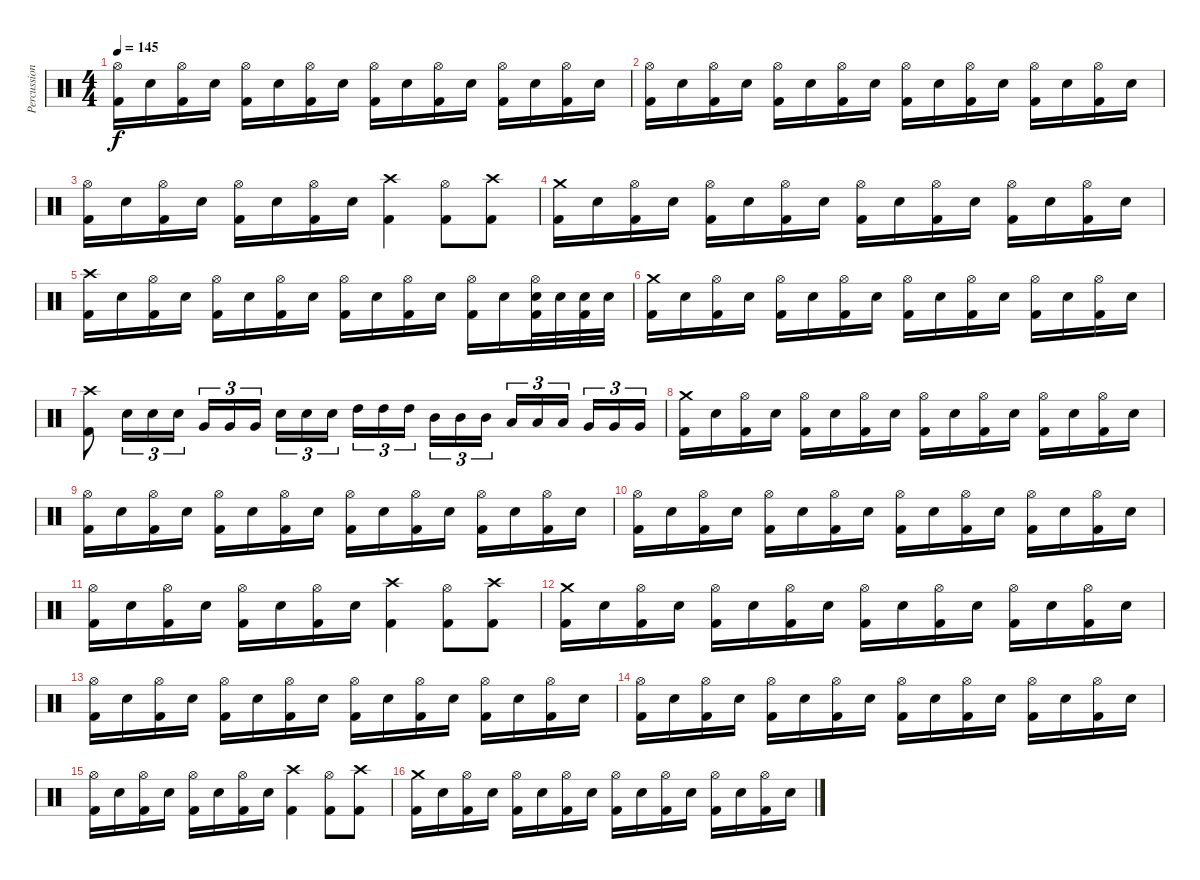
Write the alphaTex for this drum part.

\track ("Percussions" "Percussion") {instrument percussion}
\staff {score}
\articulation defaults
\ts (4 4)
\tempo 145
\clef neutral
\ks c
("Hi-Hat (open)" "Kick (hit) 2").16{dy f} "Electric Snare (hit)".16 ("Hi-Hat (open)" "Kick (hit) 2").16 "Electric Snare (hit)".16 ("Hi-Hat (open)" "Kick (hit) 2").16 "Electric Snare (hit)".16 ("Hi-Hat (open)" "Kick (hit) 2").16 "Electric Snare (hit)".16 ("Hi-Hat (open)" "Kick (hit) 2").16 "Electric Snare (hit)".16 ("Hi-Hat (open)" "Kick (hit) 2").16 "Electric Snare (hit)".16 ("Hi-Hat (open)" "Kick (hit) 2").16 "Electric Snare (hit)".16 ("Hi-Hat (open)" "Kick (hit) 2").16 "Electric Snare (hit)".16 |
("Hi-Hat (open)" "Kick (hit) 2").16 "Electric Snare (hit)".16 ("Hi-Hat (open)" "Kick (hit) 2").16 "Electric Snare (hit)".16 ("Hi-Hat (open)" "Kick (hit) 2").16 "Electric Snare (hit)".16 ("Hi-Hat (open)" "Kick (hit) 2").16 "Electric Snare (hit)".16 ("Hi-Hat (open)" "Kick (hit) 2").16 "Electric Snare (hit)".16 ("Hi-Hat (open)" "Kick (hit) 2").16 "Electric Snare (hit)".16 ("Hi-Hat (open)" "Kick (hit) 2").16 "Electric Snare (hit)".16 ("Hi-Hat (open)" "Kick (hit) 2").16 "Electric Snare (hit)".16 |
("Hi-Hat (open)" "Kick (hit) 2").16 "Electric Snare (hit)".16 ("Hi-Hat (open)" "Kick (hit) 2").16 "Electric Snare (hit)".16 ("Hi-Hat (open)" "Kick (hit) 2").16 "Electric Snare (hit)".16 ("Hi-Hat (open)" "Kick (hit) 2").16 "Electric Snare (hit)".16 ("Crash high (hit)" "Kick (hit) 2").4 ("Hi-Hat (open)" "Kick (hit) 2").8 ("Crash high (hit)" "Kick (hit) 2").8 |
("Crash medium (hit)" "Kick (hit) 2").16 "Electric Snare (hit)".16 ("Hi-Hat (open)" "Kick (hit) 2").16 "Electric Snare (hit)".16 ("Hi-Hat (open)" "Kick (hit) 2").16 "Electric Snare (hit)".16 ("Hi-Hat (open)" "Kick (hit) 2").16 "Electric Snare (hit)".16 ("Hi-Hat (open)" "Kick (hit) 2").16 "Electric Snare (hit)".16 ("Hi-Hat (open)" "Kick (hit) 2").16 "Electric Snare (hit)".16 ("Hi-Hat (open)" "Kick (hit) 2").16 "Electric Snare (hit)".16 ("Hi-Hat (open)" "Kick (hit) 2").16 "Electric Snare (hit)".16 |
("Crash high (hit)" "Kick (hit) 2").16 "Electric Snare (hit)".16 ("Hi-Hat (open)" "Kick (hit) 2").16 "Electric Snare (hit)".16 ("Hi-Hat (open)" "Kick (hit) 2").16 "Electric Snare (hit)".16 ("Hi-Hat (open)" "Kick (hit) 2").16 "Electric Snare (hit)".16 ("Hi-Hat (open)" "Kick (hit) 2").16 "Electric Snare (hit)".16 ("Hi-Hat (open)" "Kick (hit) 2").16 "Electric Snare (hit)".16 ("Hi-Hat (open)" "Kick (hit) 2").16 "Electric Snare (hit)".16 ("Hi-Hat (open)" "Electric Snare (hit)" "Kick (hit) 2").32 "Electric Snare (hit)".32 ("Electric Snare (hit)" "Kick (hit) 2").32 "Electric Snare (hit)".32 |
("Crash medium (hit)" "Kick (hit) 2").16 "Electric Snare (hit)".16 ("Hi-Hat (open)" "Kick (hit) 2").16 "Electric Snare (hit)".16 ("Hi-Hat (open)" "Kick (hit) 2").16 "Electric Snare (hit)".16 ("Hi-Hat (open)" "Kick (hit) 2").16 "Electric Snare (hit)".16 ("Hi-Hat (open)" "Kick (hit) 2").16 "Electric Snare (hit)".16 ("Hi-Hat (open)" "Kick (hit) 2").16 "Electric Snare (hit)".16 ("Hi-Hat (open)" "Kick (hit) 2").16 "Electric Snare (hit)".16 ("Hi-Hat (open)" "Kick (hit) 2").16 "Electric Snare (hit)".16 |
("Crash high (hit)" "Kick (hit) 2").8 "Electric Snare (hit)".16{tu (3 2)} "Electric Snare (hit)".16{tu (3 2)} "Electric Snare (hit)".16{tu (3 2)} "Very Low Tom (hit)".16{tu (3 2)} "Very Low Tom (hit)".16{tu (3 2)} "Very Low Tom (hit)".16{tu (3 2) beam splitsecondary} "Electric Snare (hit)".16{tu (3 2)} "Electric Snare (hit)".16{tu (3 2)} "Electric Snare (hit)".16{tu (3 2)} "High Tom (hit)".16{tu (3 2)} "High Tom (hit)".16{tu (3 2)} "High Tom (hit)".16{tu (3 2) beam splitsecondary} "Mid Tom (hit)".16{tu (3 2)} "Mid Tom (hit)".16{tu (3 2)} "Mid Tom (hit)".16{tu (3 2)} "Low Tom (hit)".16{tu (3 2)} "Low Tom (hit)".16{tu (3 2)} "Low Tom (hit)".16{tu (3 2) beam splitsecondary} "Very Low Tom (hit)".16{tu (3 2)} "Very Low Tom (hit)".16{tu (3 2)} "Very Low Tom (hit)".16{tu (3 2)} |
("Crash medium (hit)" "Kick (hit) 2").16 "Electric Snare (hit)".16 ("Hi-Hat (open)" "Kick (hit) 2").16 "Electric Snare (hit)".16 ("Hi-Hat (open)" "Kick (hit) 2").16 "Electric Snare (hit)".16 ("Hi-Hat (open)" "Kick (hit) 2").16 "Electric Snare (hit)".16 ("Hi-Hat (open)" "Kick (hit) 2").16 "Electric Snare (hit)".16 ("Hi-Hat (open)" "Kick (hit) 2").16 "Electric Snare (hit)".16 ("Hi-Hat (open)" "Kick (hit) 2").16 "Electric Snare (hit)".16 ("Hi-Hat (open)" "Kick (hit) 2").16 "Electric Snare (hit)".16 |
("Hi-Hat (open)" "Kick (hit) 2").16 "Electric Snare (hit)".16 ("Hi-Hat (open)" "Kick (hit) 2").16 "Electric Snare (hit)".16 ("Hi-Hat (open)" "Kick (hit) 2").16 "Electric Snare (hit)".16 ("Hi-Hat (open)" "Kick (hit) 2").16 "Electric Snare (hit)".16 ("Hi-Hat (open)" "Kick (hit) 2").16 "Electric Snare (hit)".16 ("Hi-Hat (open)" "Kick (hit) 2").16 "Electric Snare (hit)".16 ("Hi-Hat (open)" "Kick (hit) 2").16 "Electric Snare (hit)".16 ("Hi-Hat (open)" "Kick (hit) 2").16 "Electric Snare (hit)".16 |
("Hi-Hat (open)" "Kick (hit) 2").16 "Electric Snare (hit)".16 ("Hi-Hat (open)" "Kick (hit) 2").16 "Electric Snare (hit)".16 ("Hi-Hat (open)" "Kick (hit) 2").16 "Electric Snare (hit)".16 ("Hi-Hat (open)" "Kick (hit) 2").16 "Electric Snare (hit)".16 ("Hi-Hat (open)" "Kick (hit) 2").16 "Electric Snare (hit)".16 ("Hi-Hat (open)" "Kick (hit) 2").16 "Electric Snare (hit)".16 ("Hi-Hat (open)" "Kick (hit) 2").16 "Electric Snare (hit)".16 ("Hi-Hat (open)" "Kick (hit) 2").16 "Electric Snare (hit)".16 |
("Hi-Hat (open)" "Kick (hit) 2").16 "Electric Snare (hit)".16 ("Hi-Hat (open)" "Kick (hit) 2").16 "Electric Snare (hit)".16 ("Hi-Hat (open)" "Kick (hit) 2").16 "Electric Snare (hit)".16 ("Hi-Hat (open)" "Kick (hit) 2").16 "Electric Snare (hit)".16 ("Crash high (hit)" "Kick (hit) 2").4 ("Hi-Hat (open)" "Kick (hit) 2").8 ("Crash high (hit)" "Kick (hit) 2").8 |
("Crash medium (hit)" "Kick (hit) 2").16 "Electric Snare (hit)".16 ("Hi-Hat (open)" "Kick (hit) 2").16 "Electric Snare (hit)".16 ("Hi-Hat (open)" "Kick (hit) 2").16 "Electric Snare (hit)".16 ("Hi-Hat (open)" "Kick (hit) 2").16 "Electric Snare (hit)".16 ("Hi-Hat (open)" "Kick (hit) 2").16 "Electric Snare (hit)".16 ("Hi-Hat (open)" "Kick (hit) 2").16 "Electric Snare (hit)".16 ("Hi-Hat (open)" "Kick (hit) 2").16 "Electric Snare (hit)".16 ("Hi-Hat (open)" "Kick (hit) 2").16 "Electric Snare (hit)".16 |
("Hi-Hat (open)" "Kick (hit) 2").16 "Electric Snare (hit)".16 ("Hi-Hat (open)" "Kick (hit) 2").16 "Electric Snare (hit)".16 ("Hi-Hat (open)" "Kick (hit) 2").16 "Electric Snare (hit)".16 ("Hi-Hat (open)" "Kick (hit) 2").16 "Electric Snare (hit)".16 ("Hi-Hat (open)" "Kick (hit) 2").16 "Electric Snare (hit)".16 ("Hi-Hat (open)" "Kick (hit) 2").16 "Electric Snare (hit)".16 ("Hi-Hat (open)" "Kick (hit) 2").16 "Electric Snare (hit)".16 ("Hi-Hat (open)" "Kick (hit) 2").16 "Electric Snare (hit)".16 |
("Hi-Hat (open)" "Kick (hit) 2").16 "Electric Snare (hit)".16 ("Hi-Hat (open)" "Kick (hit) 2").16 "Electric Snare (hit)".16 ("Hi-Hat (open)" "Kick (hit) 2").16 "Electric Snare (hit)".16 ("Hi-Hat (open)" "Kick (hit) 2").16 "Electric Snare (hit)".16 ("Hi-Hat (open)" "Kick (hit) 2").16 "Electric Snare (hit)".16 ("Hi-Hat (open)" "Kick (hit) 2").16 "Electric Snare (hit)".16 ("Hi-Hat (open)" "Kick (hit) 2").16 "Electric Snare (hit)".16 ("Hi-Hat (open)" "Kick (hit) 2").16 "Electric Snare (hit)".16 |
("Hi-Hat (open)" "Kick (hit) 2").16 "Electric Snare (hit)".16 ("Hi-Hat (open)" "Kick (hit) 2").16 "Electric Snare (hit)".16 ("Hi-Hat (open)" "Kick (hit) 2").16 "Electric Snare (hit)".16 ("Hi-Hat (open)" "Kick (hit) 2").16 "Electric Snare (hit)".16 ("Crash high (hit)" "Kick (hit) 2").4 ("Hi-Hat (open)" "Kick (hit) 2").8 ("Crash high (hit)" "Kick (hit) 2").8 |
("Crash medium (hit)" "Kick (hit) 2").16 "Electric Snare (hit)".16 ("Hi-Hat (open)" "Kick (hit) 2").16 "Electric Snare (hit)".16 ("Hi-Hat (open)" "Kick (hit) 2").16 "Electric Snare (hit)".16 ("Hi-Hat (open)" "Kick (hit) 2").16 "Electric Snare (hit)".16 ("Hi-Hat (open)" "Kick (hit) 2").16 "Electric Snare (hit)".16 ("Hi-Hat (open)" "Kick (hit) 2").16 "Electric Snare (hit)".16 ("Hi-Hat (open)" "Kick (hit) 2").16 "Electric Snare (hit)".16 ("Hi-Hat (open)" "Kick (hit) 2").16 "Electric Snare (hit)".16
